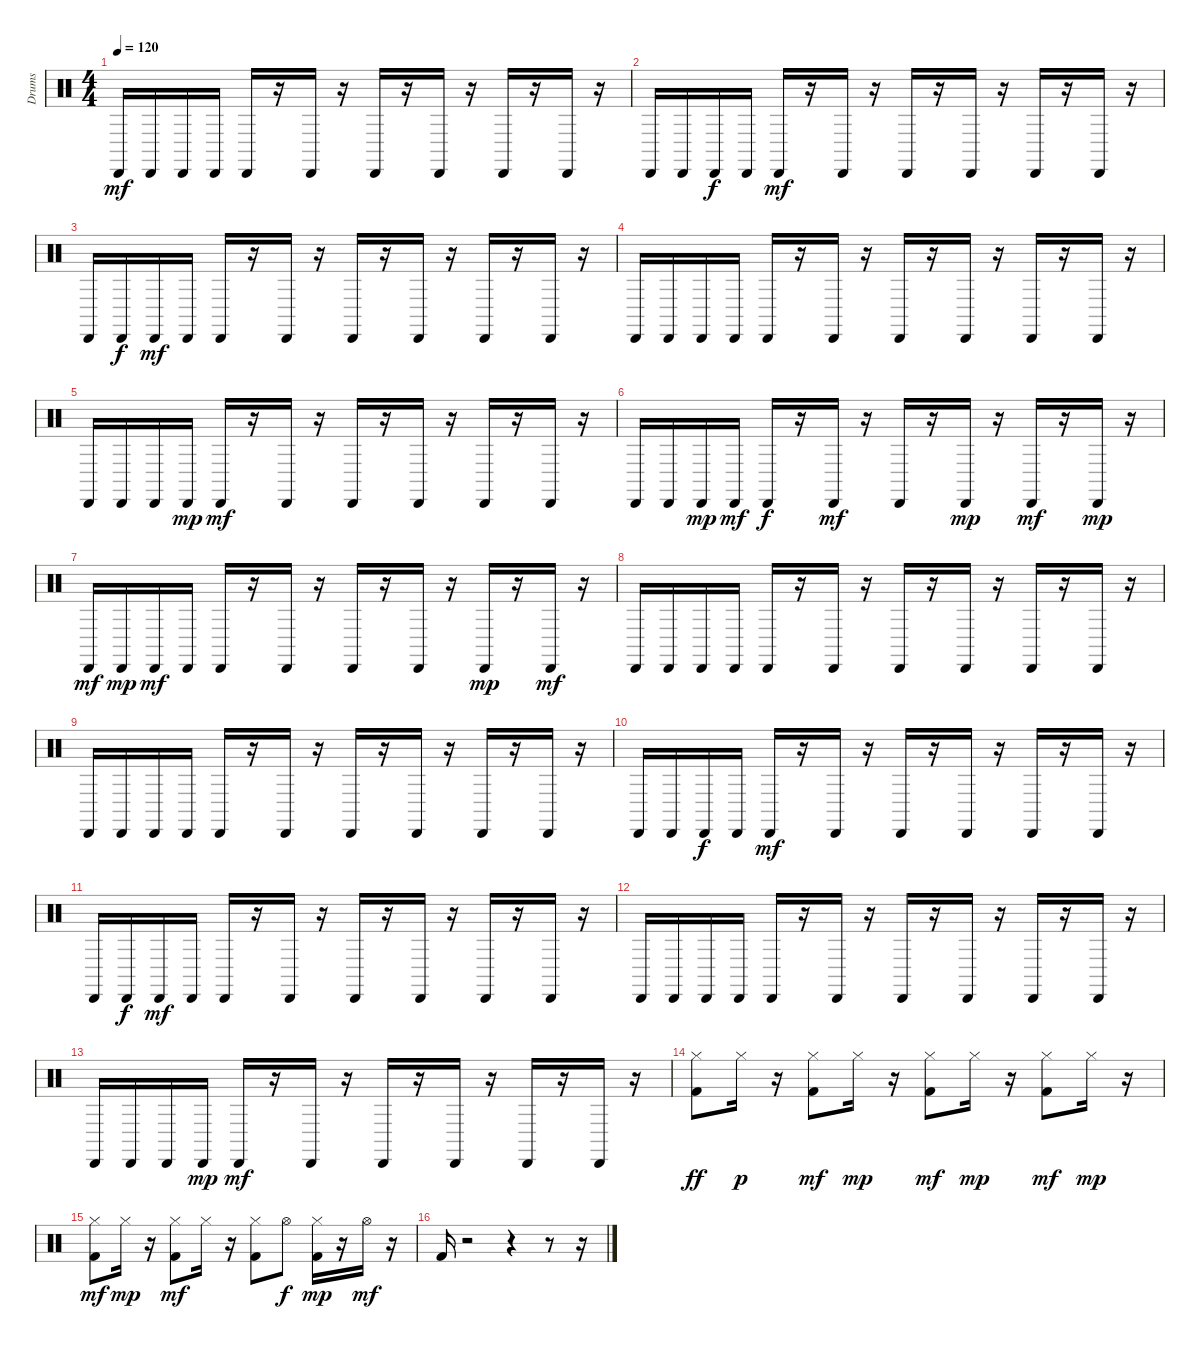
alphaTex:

\track ("Drums" "Drums") {instrument percussion}
\staff {score}
\articulation defaults
\ts (4 4)
\tempo 120
\clef neutral
\ks c "Cabasa (hit)".16{dy mf} "Cabasa (hit)".16 "Cabasa (hit)".16 "Cabasa (hit)".16 "Cabasa (hit)".16
r.16 "Cabasa (hit)".16 r.16 "Cabasa (hit)".16 r.16 "Cabasa (hit)".16 r.16 "Cabasa (hit)".16 r.16 "Cabasa (hit)".16 r.16 |
"Cabasa (hit)".16 "Cabasa (hit)".16 "Cabasa (hit)".16{dy f} "Cabasa (hit)".16 "Cabasa (hit)".16{dy mf} r.16 "Cabasa (hit)".16 r.16 "Cabasa (hit)".16 r.16 "Cabasa (hit)".16 r.16 "Cabasa (hit)".16 r.16 "Cabasa (hit)".16 r.16 |
"Cabasa (hit)".16 "Cabasa (hit)".16{dy f} "Cabasa (hit)".16{dy mf} "Cabasa (hit)".16 "Cabasa (hit)".16 r.16 "Cabasa (hit)".16 r.16 "Cabasa (hit)".16 r.16 "Cabasa (hit)".16 r.16 "Cabasa (hit)".16 r.16 "Cabasa (hit)".16 r.16 |
"Cabasa (hit)".16 "Cabasa (hit)".16 "Cabasa (hit)".16 "Cabasa (hit)".16 "Cabasa (hit)".16 r.16 "Cabasa (hit)".16 r.16 "Cabasa (hit)".16 r.16 "Cabasa (hit)".16 r.16 "Cabasa (hit)".16 r.16 "Cabasa (hit)".16 r.16 |
"Cabasa (hit)".16 "Cabasa (hit)".16 "Cabasa (hit)".16 "Cabasa (hit)".16{dy mp} "Cabasa (hit)".16{dy mf} r.16 "Cabasa (hit)".16 r.16 "Cabasa (hit)".16 r.16 "Cabasa (hit)".16 r.16 "Cabasa (hit)".16 r.16 "Cabasa (hit)".16 r.16 |
"Cabasa (hit)".16 "Cabasa (hit)".16 "Cabasa (hit)".16{dy mp} "Cabasa (hit)".16{dy mf} "Cabasa (hit)".16{dy f} r.16 "Cabasa (hit)".16{dy mf} r.16 "Cabasa (hit)".16 r.16 "Cabasa (hit)".16{dy mp} r.16 "Cabasa (hit)".16{dy mf} r.16 "Cabasa (hit)".16{dy mp} r.16 |
"Cabasa (hit)".16{dy mf} "Cabasa (hit)".16{dy mp} "Cabasa (hit)".16{dy mf} "Cabasa (hit)".16 "Cabasa (hit)".16 r.16 "Cabasa (hit)".16 r.16 "Cabasa (hit)".16 r.16 "Cabasa (hit)".16 r.16 "Cabasa (hit)".16{dy mp} r.16 "Cabasa (hit)".16{dy mf} r.16 |
"Cabasa (hit)".16 "Cabasa (hit)".16 "Cabasa (hit)".16 "Cabasa (hit)".16 "Cabasa (hit)".16 r.16 "Cabasa (hit)".16 r.16 "Cabasa (hit)".16 r.16 "Cabasa (hit)".16 r.16 "Cabasa (hit)".16 r.16 "Cabasa (hit)".16 r.16 |
"Cabasa (hit)".16 "Cabasa (hit)".16 "Cabasa (hit)".16 "Cabasa (hit)".16 "Cabasa (hit)".16 r.16 "Cabasa (hit)".16 r.16 "Cabasa (hit)".16 r.16 "Cabasa (hit)".16 r.16 "Cabasa (hit)".16 r.16 "Cabasa (hit)".16 r.16 |
"Cabasa (hit)".16 "Cabasa (hit)".16 "Cabasa (hit)".16{dy f} "Cabasa (hit)".16 "Cabasa (hit)".16{dy mf} r.16 "Cabasa (hit)".16 r.16 "Cabasa (hit)".16 r.16 "Cabasa (hit)".16 r.16 "Cabasa (hit)".16 r.16 "Cabasa (hit)".16 r.16 |
"Cabasa (hit)".16 "Cabasa (hit)".16{dy f} "Cabasa (hit)".16{dy mf} "Cabasa (hit)".16 "Cabasa (hit)".16 r.16 "Cabasa (hit)".16 r.16 "Cabasa (hit)".16 r.16 "Cabasa (hit)".16 r.16 "Cabasa (hit)".16 r.16 "Cabasa (hit)".16 r.16 |
"Cabasa (hit)".16 "Cabasa (hit)".16 "Cabasa (hit)".16 "Cabasa (hit)".16 "Cabasa (hit)".16 r.16 "Cabasa (hit)".16 r.16 "Cabasa (hit)".16 r.16 "Cabasa (hit)".16 r.16 "Cabasa (hit)".16 r.16 "Cabasa (hit)".16 r.16 |
"Cabasa (hit)".16 "Cabasa (hit)".16 "Cabasa (hit)".16 "Cabasa (hit)".16{dy mp} "Cabasa (hit)".16{dy mf} r.16 "Cabasa (hit)".16 r.16 "Cabasa (hit)".16 r.16 "Cabasa (hit)".16 r.16 "Cabasa (hit)".16 r.16 "Cabasa (hit)".16 r.16 |
("Hi-Hat (closed)" "Kick (hit) 2").8{dy ff} "Hi-Hat (closed)".16{dy p} r.16 ("Hi-Hat (closed)" "Kick (hit) 2").8{dy mf} "Hi-Hat (closed)".16{dy mp} r.16 ("Hi-Hat (closed)" "Kick (hit) 2").8{dy mf} "Hi-Hat (closed)".16{dy mp} r.16 ("Kick (hit) 2" "Hi-Hat (closed)").8{dy mf} "Hi-Hat (closed)".16{dy mp} r.16 |
("Kick (hit) 2" "Hi-Hat (closed)").8{dy mf} "Hi-Hat (closed)".16{dy mp} r.16 ("Kick (hit) 2" "Hi-Hat (closed)").8{dy mf} "Hi-Hat (closed)".16 r.16 ("Kick (hit) 2" "Hi-Hat (closed)").8 "Hi-Hat (open)".8{dy f} ("Hi-Hat (closed)" "Kick (hit) 2").16{dy mp} r.16 "Hi-Hat (open)".16{dy mf} r.16 |
"Kick (hit) 2".16 r.2 r.4 r.8 r.16
